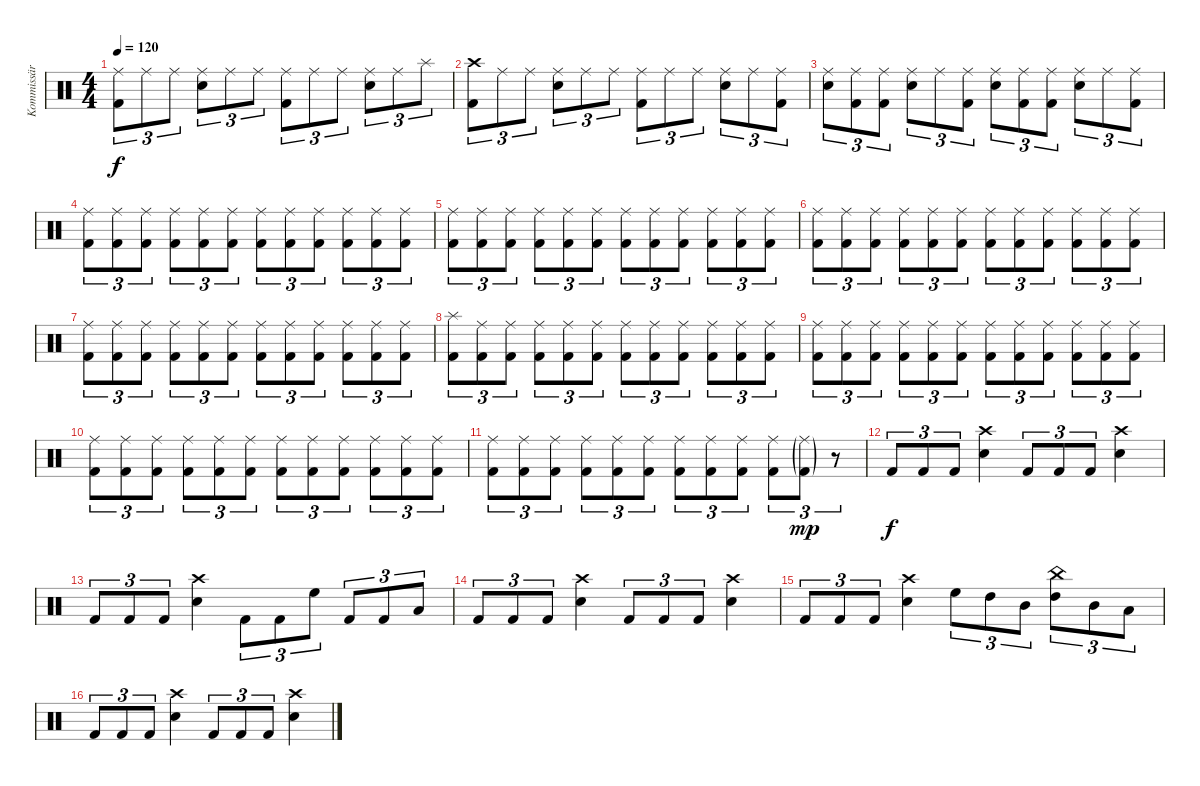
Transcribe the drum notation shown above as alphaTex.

\track ("Kommissär Ogrim" "Kommissär ") {instrument percussion}
\staff {score}
\articulation defaults
\ts (4 4)
\tempo 120
\clef neutral
\ks c
("Ride (middle)" "Kick (hit) 2").8{tu (3 2) dy f} "Ride (middle)".8{tu (3 2)} "Ride (middle)".8{tu (3 2)} ("Snare (hit) 2" "Ride (middle)").8{tu (3 2)} "Ride (middle)".8{tu (3 2)} "Ride (middle)".8{tu (3 2)} ("Ride (middle)" "Kick (hit) 2").8{tu (3 2)} "Ride (middle)".8{tu (3 2)} "Ride (middle)".8{tu (3 2)} ("Snare (hit) 2" "Ride (middle)").8{tu (3 2)} "Ride (middle)".8{tu (3 2)} "Splash (hit)".8{tu (3 2)} |
("Crash high (hit)" "Kick (hit) 2").8{tu (3 2)} "Ride (middle)".8{tu (3 2)} "Ride (middle)".8{tu (3 2)} ("Snare (hit) 2" "Ride (middle)").8{tu (3 2)} "Ride (middle)".8{tu (3 2)} "Ride (middle)".8{tu (3 2)} ("Ride (middle)" "Kick (hit) 2").8{tu (3 2)} "Ride (middle)".8{tu (3 2)} "Ride (middle)".8{tu (3 2)} ("Snare (hit) 2" "Ride (middle)").8{tu (3 2)} "Ride (middle)".8{tu (3 2)} ("Ride (middle)" "Kick (hit) 2").8{tu (3 2)} |
("Snare (hit) 2" "Ride (middle)").8{tu (3 2)} ("Ride (middle)" "Kick (hit) 2").8{tu (3 2)} ("Ride (middle)" "Kick (hit) 2").8{tu (3 2)} ("Snare (hit) 2" "Ride (middle)").8{tu (3 2)} "Ride (middle)".8{tu (3 2)} ("Ride (middle)" "Kick (hit) 2").8{tu (3 2)} ("Snare (hit) 2" "Ride (middle)").8{tu (3 2)} ("Ride (middle)" "Kick (hit) 2").8{tu (3 2)} ("Ride (middle)" "Kick (hit) 2").8{tu (3 2)} ("Snare (hit) 2" "Ride (middle)").8{tu (3 2)} "Ride (middle)".8{tu (3 2)} ("Ride (middle)" "Kick (hit) 2").8{tu (3 2)} |
("Ride (middle)" "Kick (hit) 2").8{tu (3 2)} ("Ride (middle)" "Kick (hit) 2").8{tu (3 2)} ("Ride (middle)" "Kick (hit) 2").8{tu (3 2)} ("Ride (middle)" "Kick (hit) 2").8{tu (3 2)} ("Ride (middle)" "Kick (hit) 2").8{tu (3 2)} ("Ride (middle)" "Kick (hit) 2").8{tu (3 2)} ("Ride (middle)" "Kick (hit) 2").8{tu (3 2)} ("Ride (middle)" "Kick (hit) 2").8{tu (3 2)} ("Ride (middle)" "Kick (hit) 2").8{tu (3 2)} ("Ride (middle)" "Kick (hit) 2").8{tu (3 2)} ("Ride (middle)" "Kick (hit) 2").8{tu (3 2)} ("Ride (middle)" "Kick (hit) 2").8{tu (3 2)} |
("Ride (middle)" "Kick (hit) 2").8{tu (3 2)} ("Ride (middle)" "Kick (hit) 2").8{tu (3 2)} ("Ride (middle)" "Kick (hit) 2").8{tu (3 2)} ("Ride (middle)" "Kick (hit) 2").8{tu (3 2)} ("Ride (middle)" "Kick (hit) 2").8{tu (3 2)} ("Ride (middle)" "Kick (hit) 2").8{tu (3 2)} ("Ride (middle)" "Kick (hit) 2").8{tu (3 2)} ("Ride (middle)" "Kick (hit) 2").8{tu (3 2)} ("Ride (middle)" "Kick (hit) 2").8{tu (3 2)} ("Ride (middle)" "Kick (hit) 2").8{tu (3 2)} ("Ride (middle)" "Kick (hit) 2").8{tu (3 2)} ("Ride (middle)" "Kick (hit) 2").8{tu (3 2)} |
("Ride (middle)" "Kick (hit) 2").8{tu (3 2)} ("Ride (middle)" "Kick (hit) 2").8{tu (3 2)} ("Ride (middle)" "Kick (hit) 2").8{tu (3 2)} ("Ride (middle)" "Kick (hit) 2").8{tu (3 2)} ("Ride (middle)" "Kick (hit) 2").8{tu (3 2)} ("Ride (middle)" "Kick (hit) 2").8{tu (3 2)} ("Ride (middle)" "Kick (hit) 2").8{tu (3 2)} ("Ride (middle)" "Kick (hit) 2").8{tu (3 2)} ("Ride (middle)" "Kick (hit) 2").8{tu (3 2)} ("Ride (middle)" "Kick (hit) 2").8{tu (3 2)} ("Ride (middle)" "Kick (hit) 2").8{tu (3 2)} ("Ride (middle)" "Kick (hit) 2").8{tu (3 2)} |
("Ride (middle)" "Kick (hit) 2").8{tu (3 2)} ("Ride (middle)" "Kick (hit) 2").8{tu (3 2)} ("Ride (middle)" "Kick (hit) 2").8{tu (3 2)} ("Ride (middle)" "Kick (hit) 2").8{tu (3 2)} ("Ride (middle)" "Kick (hit) 2").8{tu (3 2)} ("Ride (middle)" "Kick (hit) 2").8{tu (3 2)} ("Ride (middle)" "Kick (hit) 2").8{tu (3 2)} ("Ride (middle)" "Kick (hit) 2").8{tu (3 2)} ("Ride (middle)" "Kick (hit) 2").8{tu (3 2)} ("Ride (middle)" "Kick (hit) 2").8{tu (3 2)} ("Ride (middle)" "Kick (hit) 2").8{tu (3 2)} ("Ride (middle)" "Kick (hit) 2").8{tu (3 2)} |
("Splash (hit)" "Kick (hit) 2").8{tu (3 2)} ("Ride (middle)" "Kick (hit) 2").8{tu (3 2)} ("Ride (middle)" "Kick (hit) 2").8{tu (3 2)} ("Ride (middle)" "Kick (hit) 2").8{tu (3 2)} ("Ride (middle)" "Kick (hit) 2").8{tu (3 2)} ("Ride (middle)" "Kick (hit) 2").8{tu (3 2)} ("Ride (middle)" "Kick (hit) 2").8{tu (3 2)} ("Ride (middle)" "Kick (hit) 2").8{tu (3 2)} ("Ride (middle)" "Kick (hit) 2").8{tu (3 2)} ("Ride (middle)" "Kick (hit) 2").8{tu (3 2)} ("Ride (middle)" "Kick (hit) 2").8{tu (3 2)} ("Ride (middle)" "Kick (hit) 2").8{tu (3 2)} |
("Ride (middle)" "Kick (hit) 2").8{tu (3 2)} ("Ride (middle)" "Kick (hit) 2").8{tu (3 2)} ("Ride (middle)" "Kick (hit) 2").8{tu (3 2)} ("Ride (middle)" "Kick (hit) 2").8{tu (3 2)} ("Ride (middle)" "Kick (hit) 2").8{tu (3 2)} ("Ride (middle)" "Kick (hit) 2").8{tu (3 2)} ("Ride (middle)" "Kick (hit) 2").8{tu (3 2)} ("Ride (middle)" "Kick (hit) 2").8{tu (3 2)} ("Ride (middle)" "Kick (hit) 2").8{tu (3 2)} ("Ride (middle)" "Kick (hit) 2").8{tu (3 2)} ("Ride (middle)" "Kick (hit) 2").8{tu (3 2)} ("Ride (middle)" "Kick (hit) 2").8{tu (3 2)} |
("Ride (middle)" "Kick (hit) 2").8{tu (3 2)} ("Ride (middle)" "Kick (hit) 2").8{tu (3 2)} ("Ride (middle)" "Kick (hit) 2").8{tu (3 2)} ("Ride (middle)" "Kick (hit) 2").8{tu (3 2)} ("Ride (middle)" "Kick (hit) 2").8{tu (3 2)} ("Ride (middle)" "Kick (hit) 2").8{tu (3 2)} ("Ride (middle)" "Kick (hit) 2").8{tu (3 2)} ("Ride (middle)" "Kick (hit) 2").8{tu (3 2)} ("Ride (middle)" "Kick (hit) 2").8{tu (3 2)} ("Ride (middle)" "Kick (hit) 2").8{tu (3 2)} ("Ride (middle)" "Kick (hit) 2").8{tu (3 2)} ("Ride (middle)" "Kick (hit) 2").8{tu (3 2)} |
("Ride (middle)" "Kick (hit) 2").8{tu (3 2)} ("Ride (middle)" "Kick (hit) 2").8{tu (3 2)} ("Ride (middle)" "Kick (hit) 2").8{tu (3 2)} ("Ride (middle)" "Kick (hit) 2").8{tu (3 2)} ("Ride (middle)" "Kick (hit) 2").8{tu (3 2)} ("Ride (middle)" "Kick (hit) 2").8{tu (3 2)} ("Ride (middle)" "Kick (hit) 2").8{tu (3 2)} ("Ride (middle)" "Kick (hit) 2").8{tu (3 2)} ("Ride (middle)" "Kick (hit) 2").8{tu (3 2)} ("Ride (middle)" "Kick (hit) 2").8{tu (3 2)} ("Ride (middle)"{g} "Kick (hit) 2"{g}).8{tu (3 2) dy mp} r.8{tu (3 2)} |
"Kick (hit) 2".8{tu (3 2) dy f} "Kick (hit) 2".8{tu (3 2)} "Kick (hit) 2".8{tu (3 2)} ("Snare (hit) 2" "Crash high (hit)").4 "Kick (hit) 2".8{tu (3 2)} "Kick (hit) 2".8{tu (3 2)} "Kick (hit) 2".8{tu (3 2)} ("Snare (hit) 2" "Crash high (hit)").4 |
"Kick (hit) 2".8{tu (3 2)} "Kick (hit) 2".8{tu (3 2)} "Kick (hit) 2".8{tu (3 2)} ("Snare (hit) 2" "Crash high (hit)").4 "Kick (hit) 2".8{tu (3 2)} "Kick (hit) 2".8{tu (3 2)} "High Floor Tom (hit)".8{tu (3 2)} "Kick (hit) 2".8{tu (3 2)} "Kick (hit) 2".8{tu (3 2)} "Low Tom (hit)".8{tu (3 2)} |
"Kick (hit) 2".8{tu (3 2)} "Kick (hit) 2".8{tu (3 2)} "Kick (hit) 2".8{tu (3 2)} ("Snare (hit) 2" "Crash high (hit)").4 "Kick (hit) 2".8{tu (3 2)} "Kick (hit) 2".8{tu (3 2)} "Kick (hit) 2".8{tu (3 2)} ("Snare (hit) 2" "Crash high (hit)").4 |
"Kick (hit) 2".8{tu (3 2)} "Kick (hit) 2".8{tu (3 2)} "Kick (hit) 2".8{tu (3 2)} ("Snare (hit) 2" "Crash high (hit)").4 "High Floor Tom (hit)".8{tu (3 2)} "High Tom (hit)".8{tu (3 2)} "Mid Tom (hit)".8{tu (3 2)} ("China (hit)" "High Tom (hit)").8{tu (3 2)} "Mid Tom (hit)".8{tu (3 2)} "Low Tom (hit)".8{tu (3 2)} |
"Kick (hit) 2".8{tu (3 2)} "Kick (hit) 2".8{tu (3 2)} "Kick (hit) 2".8{tu (3 2)} ("Snare (hit) 2" "Crash high (hit)").4 "Kick (hit) 2".8{tu (3 2)} "Kick (hit) 2".8{tu (3 2)} "Kick (hit) 2".8{tu (3 2)} ("Snare (hit) 2" "Crash high (hit)").4
